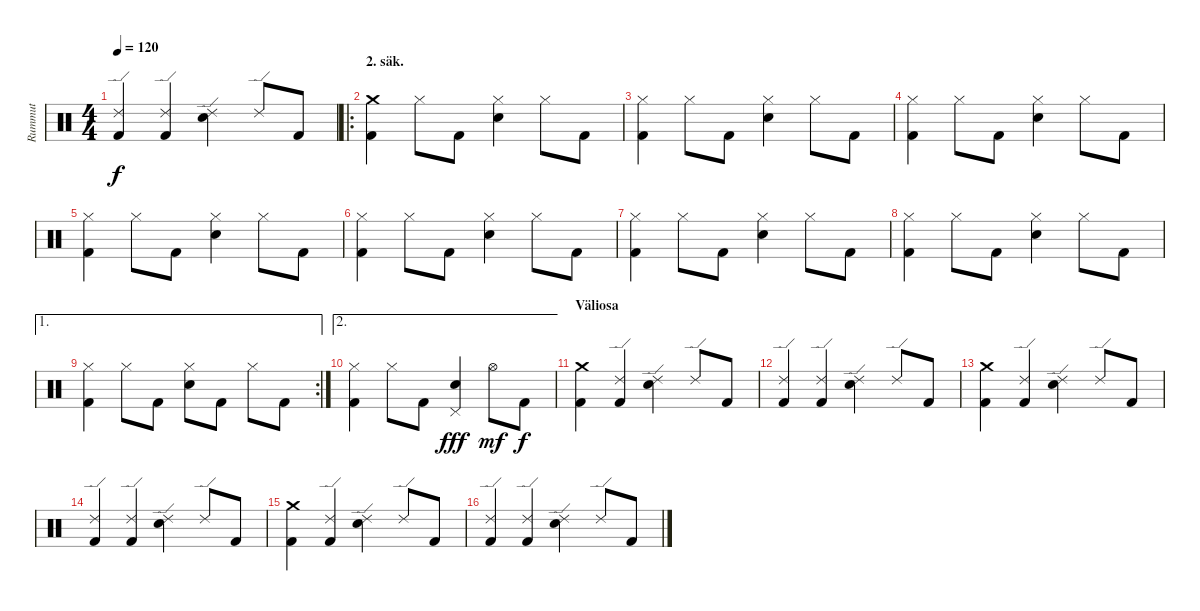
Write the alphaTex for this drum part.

\track ("Rummut" "Rummut") {instrument percussion}
\staff {score}
\articulation defaults
\ts (4 4)
\tempo 120
\clef neutral
\ks c
("Kick (hit) 2" "Ride (edge) 2").4{dy f} ("Kick (hit) 2" "Ride (edge) 2").4 ("Ride (edge) 2" "Snare (hit) 2").4 "Ride (edge) 2".8 "Kick (hit) 2".8 |
\ro
\section ("" "2. säk.")
("Kick (hit) 2" "Crash medium (hit)").4 "Hi-Hat (closed)".8 "Kick (hit) 2".8 ("Hi-Hat (closed)" "Snare (hit) 2").4 "Hi-Hat (closed)".8 "Kick (hit) 2".8 |
("Kick (hit) 2" "Hi-Hat (closed)").4 "Hi-Hat (closed)".8 "Kick (hit) 2".8 ("Hi-Hat (closed)" "Snare (hit) 2").4 "Hi-Hat (closed)".8 "Kick (hit) 2".8 |
("Kick (hit) 2" "Hi-Hat (closed)").4 "Hi-Hat (closed)".8 "Kick (hit) 2".8 ("Hi-Hat (closed)" "Snare (hit) 2").4 "Hi-Hat (closed)".8 "Kick (hit) 2".8 |
("Kick (hit) 2" "Hi-Hat (closed)").4 "Hi-Hat (closed)".8 "Kick (hit) 2".8 ("Hi-Hat (closed)" "Snare (hit) 2").4 "Hi-Hat (closed)".8 "Kick (hit) 2".8 |
("Kick (hit) 2" "Hi-Hat (closed)").4 "Hi-Hat (closed)".8 "Kick (hit) 2".8 ("Hi-Hat (closed)" "Snare (hit) 2").4 "Hi-Hat (closed)".8 "Kick (hit) 2".8 |
("Kick (hit) 2" "Hi-Hat (closed)").4 "Hi-Hat (closed)".8 "Kick (hit) 2".8 ("Hi-Hat (closed)" "Snare (hit) 2").4 "Hi-Hat (closed)".8 "Kick (hit) 2".8 |
("Kick (hit) 2" "Hi-Hat (closed)").4 "Hi-Hat (closed)".8 "Kick (hit) 2".8 ("Hi-Hat (closed)" "Snare (hit) 2").4 "Hi-Hat (closed)".8 "Kick (hit) 2".8 |
\ae 1
\rc 2
("Kick (hit) 2" "Hi-Hat (closed)").4 "Hi-Hat (closed)".8 "Kick (hit) 2".8 ("Hi-Hat (closed)" "Snare (hit) 2").8 "Kick (hit) 2".8 "Hi-Hat (closed)".8 "Kick (hit) 2".8 |
\ae 2
("Kick (hit) 2" "Hi-Hat (closed)").4 "Hi-Hat (closed)".8 "Kick (hit) 2".8 ("Pedal Hi-Hat (hit)" "Snare (hit) 2").4{dy fff} "Hi-Hat (open)".8{dy mf} "Kick (hit) 2".8{dy f} |
\section ("" "Väliosa")
("Kick (hit) 2" "Crash medium (hit)").4 ("Kick (hit) 2" "Ride (edge) 2").4 ("Ride (edge) 2" "Snare (hit) 2").4 "Ride (edge) 2".8 "Kick (hit) 2".8 |
("Kick (hit) 2" "Ride (edge) 2").4 ("Kick (hit) 2" "Ride (edge) 2").4 ("Ride (edge) 2" "Snare (hit) 2").4 "Ride (edge) 2".8 "Kick (hit) 2".8 |
("Kick (hit) 2" "Crash medium (hit)").4 ("Kick (hit) 2" "Ride (edge) 2").4 ("Ride (edge) 2" "Snare (hit) 2").4 "Ride (edge) 2".8 "Kick (hit) 2".8 |
("Kick (hit) 2" "Ride (edge) 2").4 ("Kick (hit) 2" "Ride (edge) 2").4 ("Ride (edge) 2" "Snare (hit) 2").4 "Ride (edge) 2".8 "Kick (hit) 2".8 |
("Kick (hit) 2" "Crash medium (hit)").4 ("Kick (hit) 2" "Ride (edge) 2").4 ("Ride (edge) 2" "Snare (hit) 2").4 "Ride (edge) 2".8 "Kick (hit) 2".8 |
("Kick (hit) 2" "Ride (edge) 2").4 ("Kick (hit) 2" "Ride (edge) 2").4 ("Ride (edge) 2" "Snare (hit) 2").4 "Ride (edge) 2".8 "Kick (hit) 2".8
